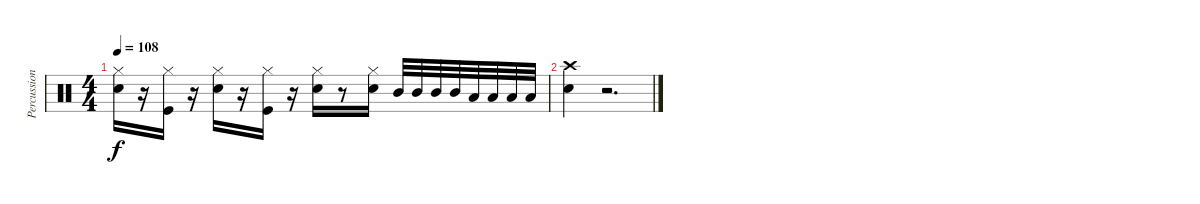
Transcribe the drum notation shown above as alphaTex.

\track ("Percussion" "Percussion") {instrument percussion}
\staff {score}
\articulation defaults
\ts (4 4)
\tempo 108
\clef neutral
\ks c
("Hi-Hat (closed)" "Snare (hit) 2").16{dy f} r.16 ("Kick (hit)" "Hi-Hat (closed)").16 r.16 ("Hi-Hat (closed)" "Snare (hit) 2").16 r.16 ("Kick (hit)" "Hi-Hat (closed)").16 r.16 ("Snare (hit) 2" "Hi-Hat (closed)").16 r.8 ("Snare (hit) 2" "Hi-Hat (closed)").16 "Mid Tom (hit)".32 "Mid Tom (hit)".32 "Mid Tom (hit)".32 "Mid Tom (hit)".32 "Low Tom (hit)".32 "Low Tom (hit)".32 "Low Tom (hit)".32 "Low Tom (hit)".32 |
("Snare (hit) 2" "Crash high (hit)").4 r.2{d}
